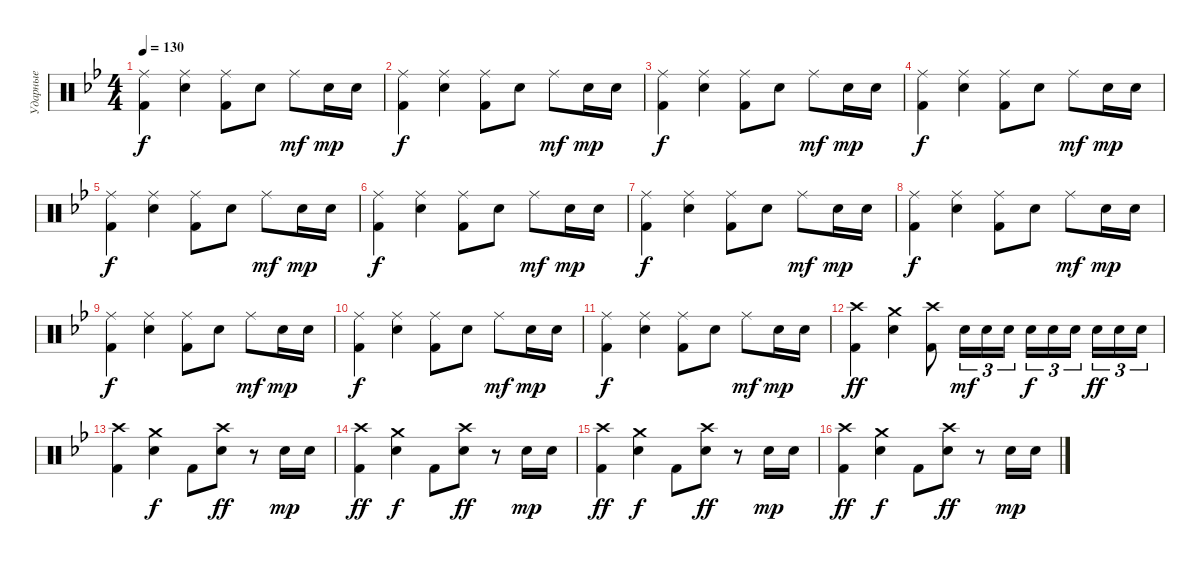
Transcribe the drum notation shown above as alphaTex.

\track ("Ударные" "Ударные") {instrument percussion}
\staff {score}
\articulation defaults
\ts (4 4)
\tempo 130
\clef neutral
\ks gminor
("Ride (middle)" "Kick (hit) 2").4{dy f} ("Ride (middle)" "Snare (hit) 2").4 ("Ride (middle)" "Kick (hit) 2").8 "Snare (hit) 2".8 "Ride (middle)".8{dy mf} "Snare (hit) 2".16{dy mp} "Snare (hit) 2".16 |
("Ride (middle)" "Kick (hit) 2").4{dy f} ("Ride (middle)" "Snare (hit) 2").4 ("Ride (middle)" "Kick (hit) 2").8 "Snare (hit) 2".8 "Ride (middle)".8{dy mf} "Snare (hit) 2".16{dy mp} "Snare (hit) 2".16 |
("Ride (middle)" "Kick (hit) 2").4{dy f} ("Ride (middle)" "Snare (hit) 2").4 ("Ride (middle)" "Kick (hit) 2").8 "Snare (hit) 2".8 "Ride (middle)".8{dy mf} "Snare (hit) 2".16{dy mp} "Snare (hit) 2".16 |
("Ride (middle)" "Kick (hit) 2").4{dy f} ("Ride (middle)" "Snare (hit) 2").4 ("Ride (middle)" "Kick (hit) 2").8 "Snare (hit) 2".8 "Ride (middle)".8{dy mf} "Snare (hit) 2".16{dy mp} "Snare (hit) 2".16 |
("Ride (middle)" "Kick (hit) 2").4{dy f} ("Ride (middle)" "Snare (hit) 2").4 ("Ride (middle)" "Kick (hit) 2").8 "Snare (hit) 2".8 "Ride (middle)".8{dy mf} "Snare (hit) 2".16{dy mp} "Snare (hit) 2".16 |
("Ride (middle)" "Kick (hit) 2").4{dy f} ("Ride (middle)" "Snare (hit) 2").4 ("Ride (middle)" "Kick (hit) 2").8 "Snare (hit) 2".8 "Ride (middle)".8{dy mf} "Snare (hit) 2".16{dy mp} "Snare (hit) 2".16 |
("Ride (middle)" "Kick (hit) 2").4{dy f} ("Ride (middle)" "Snare (hit) 2").4 ("Ride (middle)" "Kick (hit) 2").8 "Snare (hit) 2".8 "Ride (middle)".8{dy mf} "Snare (hit) 2".16{dy mp} "Snare (hit) 2".16 |
("Ride (middle)" "Kick (hit) 2").4{dy f} ("Ride (middle)" "Snare (hit) 2").4 ("Ride (middle)" "Kick (hit) 2").8 "Snare (hit) 2".8 "Ride (middle)".8{dy mf} "Snare (hit) 2".16{dy mp} "Snare (hit) 2".16 |
("Ride (middle)" "Kick (hit) 2").4{dy f} ("Ride (middle)" "Snare (hit) 2").4 ("Ride (middle)" "Kick (hit) 2").8 "Snare (hit) 2".8 "Ride (middle)".8{dy mf} "Snare (hit) 2".16{dy mp} "Snare (hit) 2".16 |
("Ride (middle)" "Kick (hit) 2").4{dy f} ("Ride (middle)" "Snare (hit) 2").4 ("Ride (middle)" "Kick (hit) 2").8 "Snare (hit) 2".8 "Ride (middle)".8{dy mf} "Snare (hit) 2".16{dy mp} "Snare (hit) 2".16 |
("Ride (middle)" "Kick (hit) 2").4{dy f} ("Ride (middle)" "Snare (hit) 2").4 ("Ride (middle)" "Kick (hit) 2").8 "Snare (hit) 2".8 "Ride (middle)".8{dy mf} "Snare (hit) 2".16{dy mp} "Snare (hit) 2".16 |
("Crash high (hit)" "Kick (hit) 2").4{dy ff} ("Crash medium (hit)" "Snare (hit) 2").4 ("Crash high (hit)" "Kick (hit) 2").8 "Snare (hit) 2".16{tu (3 2) dy mf} "Snare (hit) 2".16{tu (3 2)} "Snare (hit) 2".16{tu (3 2)} "Snare (hit) 2".16{tu (3 2) dy f} "Snare (hit) 2".16{tu (3 2)} "Snare (hit) 2".16{tu (3 2) beam splitsecondary} "Snare (hit) 2".16{tu (3 2) dy ff} "Snare (hit) 2".16{tu (3 2)} "Snare (hit) 2".16{tu (3 2)} |
("Crash high (hit)" "Kick (hit) 2").4 ("Crash medium (hit)" "Snare (hit) 2").4{dy f} "Kick (hit) 2".8 ("Crash high (hit)" "Snare (hit) 2").8{dy ff} r.8 "Snare (hit) 2".16{dy mp} "Snare (hit) 2".16 |
("Crash high (hit)" "Kick (hit) 2").4{dy ff} ("Crash medium (hit)" "Snare (hit) 2").4{dy f} "Kick (hit) 2".8 ("Crash high (hit)" "Snare (hit) 2").8{dy ff} r.8 "Snare (hit) 2".16{dy mp} "Snare (hit) 2".16 |
("Crash high (hit)" "Kick (hit) 2").4{dy ff} ("Crash medium (hit)" "Snare (hit) 2").4{dy f} "Kick (hit) 2".8 ("Crash high (hit)" "Snare (hit) 2").8{dy ff} r.8 "Snare (hit) 2".16{dy mp} "Snare (hit) 2".16 |
("Crash high (hit)" "Kick (hit) 2").4{dy ff} ("Crash medium (hit)" "Snare (hit) 2").4{dy f} "Kick (hit) 2".8 ("Crash high (hit)" "Snare (hit) 2").8{dy ff} r.8 "Snare (hit) 2".16{dy mp} "Snare (hit) 2".16
